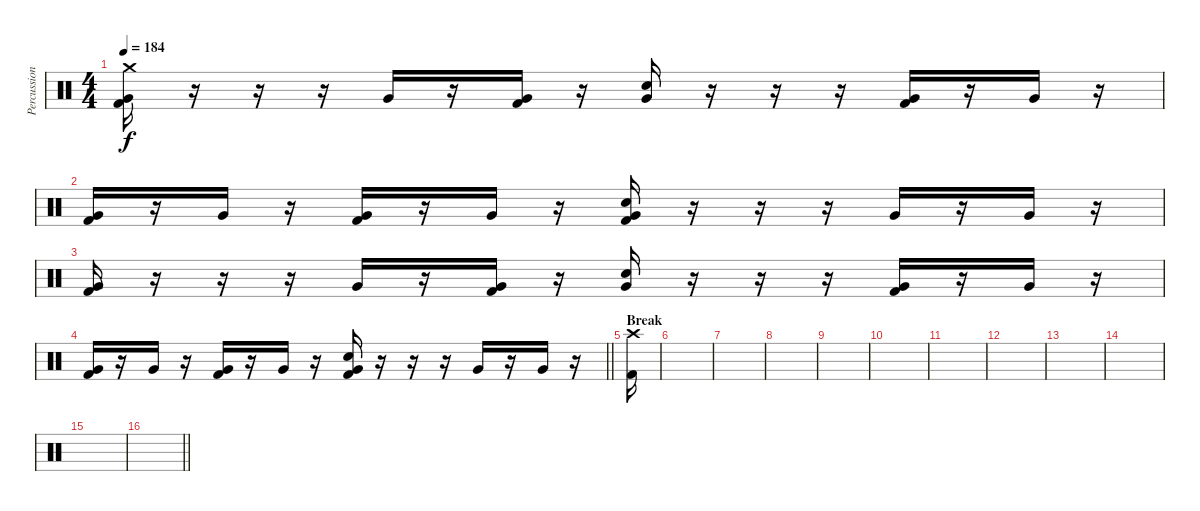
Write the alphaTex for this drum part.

\track ("Percussion" "Percussion") {instrument percussion}
\staff {score}
\articulation defaults
\ts (4 4)
\tempo 184
\clef neutral
\ks c
("Crash medium (hit)" "Very Low Tom (hit)" "Kick (hit) 2").16{dy f} r.16 r.16 r.16 "Very Low Tom (hit)".16 r.16 ("Very Low Tom (hit)" "Kick (hit) 2").16 r.16 ("Electric Snare (hit)" "Very Low Tom (hit)").16 r.16 r.16 r.16 ("Very Low Tom (hit)" "Kick (hit) 2").16 r.16 "Very Low Tom (hit)".16 r.16 |
("Very Low Tom (hit)" "Kick (hit) 2").16 r.16 "Very Low Tom (hit)".16 r.16 ("Very Low Tom (hit)" "Kick (hit) 2").16 r.16 "Very Low Tom (hit)".16 r.16 ("Electric Snare (hit)" "Very Low Tom (hit)" "Kick (hit) 2").16 r.16 r.16 r.16 "Very Low Tom (hit)".16 r.16 "Very Low Tom (hit)".16 r.16 |
("Very Low Tom (hit)" "Kick (hit) 2").16 r.16 r.16 r.16 "Very Low Tom (hit)".16 r.16 ("Very Low Tom (hit)" "Kick (hit) 2").16 r.16 ("Electric Snare (hit)" "Very Low Tom (hit)").16 r.16 r.16 r.16 ("Very Low Tom (hit)" "Kick (hit) 2").16 r.16 "Very Low Tom (hit)".16 r.16 |
\barLineRight lightlight
("Very Low Tom (hit)" "Kick (hit) 2").16 r.16 "Very Low Tom (hit)".16 r.16 ("Very Low Tom (hit)" "Kick (hit) 2").16 r.16 "Very Low Tom (hit)".16 r.16 ("Electric Snare (hit)" "Very Low Tom (hit)" "Kick (hit) 2").16 r.16 r.16 r.16 "Very Low Tom (hit)".16 r.16 "Very Low Tom (hit)".16 r.16 |
\section ("" "Break")
("Crash high (hit)" "Kick (hit) 2").16 |
|
|
|
|
|
|
|
|
|
|
\barLineRight lightlight
